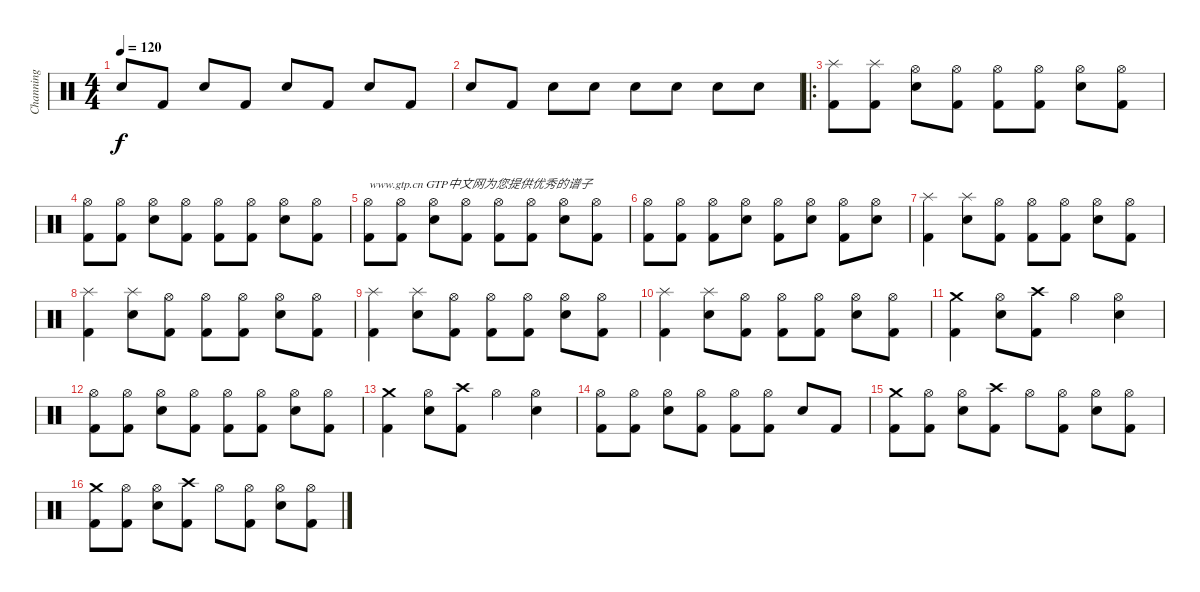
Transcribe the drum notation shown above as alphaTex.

\track ("Channing" "Channing") {instrument percussion}
\staff {score}
\articulation defaults
\ts (4 4)
\tempo 120
\clef neutral
\ks c "Snare (hit) 2".8{dy f} "Kick (hit) 2".8 "Snare (hit) 2".8 "Kick (hit) 2".8 "Snare (hit) 2".8 "Kick (hit) 2".8 "Snare (hit) 2".8 "Kick (hit) 2".8
|
"Snare (hit) 2".8 "Kick (hit) 2".8 "Snare (hit) 2".8 "Snare (hit) 2".8 "Snare (hit) 2".8 "Snare (hit) 2".8 "Snare (hit) 2".8 "Snare (hit) 2".8 |
\ro
("Splash (hit)" "Kick (hit) 2").8 ("Splash (hit)" "Kick (hit) 2").8 ("Hi-Hat (open)" "Snare (hit) 2").8 ("Hi-Hat (open)" "Kick (hit) 2").8 ("Hi-Hat (open)" "Kick (hit) 2").8 ("Hi-Hat (open)" "Kick (hit) 2").8 ("Hi-Hat (open)" "Snare (hit) 2").8 ("Hi-Hat (open)" "Kick (hit) 2").8 |
("Hi-Hat (open)" "Kick (hit) 2").8 ("Hi-Hat (open)" "Kick (hit) 2").8 ("Hi-Hat (open)" "Snare (hit) 2").8 ("Hi-Hat (open)" "Kick (hit) 2").8 ("Hi-Hat (open)" "Kick (hit) 2").8 ("Hi-Hat (open)" "Kick (hit) 2").8 ("Hi-Hat (open)" "Snare (hit) 2").8 ("Hi-Hat (open)" "Kick (hit) 2").8 |
("Hi-Hat (open)" "Kick (hit) 2").8{txt "www.gtp.cn GTP中文网为您提供优秀的谱子"} ("Hi-Hat (open)" "Kick (hit) 2").8 ("Hi-Hat (open)" "Snare (hit) 2").8 ("Hi-Hat (open)" "Kick (hit) 2").8 ("Hi-Hat (open)" "Kick (hit) 2").8 ("Hi-Hat (open)" "Kick (hit) 2").8 ("Hi-Hat (open)" "Snare (hit) 2").8 ("Hi-Hat (open)" "Kick (hit) 2").8 |
("Hi-Hat (open)" "Kick (hit) 2").8 ("Hi-Hat (open)" "Kick (hit) 2").8 ("Hi-Hat (open)" "Kick (hit) 2").8 ("Hi-Hat (open)" "Snare (hit) 2").8 ("Hi-Hat (open)" "Kick (hit) 2").8 ("Hi-Hat (open)" "Snare (hit) 2").8 ("Hi-Hat (open)" "Kick (hit) 2").8 ("Hi-Hat (open)" "Snare (hit) 2").8 |
("Splash (hit)" "Kick (hit) 2").4 ("Splash (hit)" "Snare (hit) 2").8 ("Hi-Hat (open)" "Kick (hit) 2").8 ("Hi-Hat (open)" "Kick (hit) 2").8 ("Hi-Hat (open)" "Kick (hit) 2").8 ("Hi-Hat (open)" "Snare (hit) 2").8 ("Hi-Hat (open)" "Kick (hit) 2").8 |
("Splash (hit)" "Kick (hit) 2").4 ("Splash (hit)" "Snare (hit) 2").8 ("Hi-Hat (open)" "Kick (hit) 2").8 ("Hi-Hat (open)" "Kick (hit) 2").8 ("Hi-Hat (open)" "Kick (hit) 2").8 ("Hi-Hat (open)" "Snare (hit) 2").8 ("Hi-Hat (open)" "Kick (hit) 2").8 |
("Splash (hit)" "Kick (hit) 2").4 ("Splash (hit)" "Snare (hit) 2").8 ("Hi-Hat (open)" "Kick (hit) 2").8 ("Hi-Hat (open)" "Kick (hit) 2").8 ("Hi-Hat (open)" "Kick (hit) 2").8 ("Hi-Hat (open)" "Snare (hit) 2").8 ("Hi-Hat (open)" "Kick (hit) 2").8 |
("Splash (hit)" "Kick (hit) 2").4 ("Splash (hit)" "Snare (hit) 2").8 ("Hi-Hat (open)" "Kick (hit) 2").8 ("Hi-Hat (open)" "Kick (hit) 2").8 ("Hi-Hat (open)" "Kick (hit) 2").8 ("Hi-Hat (open)" "Snare (hit) 2").8 ("Hi-Hat (open)" "Kick (hit) 2").8 |
("Crash medium (hit)" "Kick (hit) 2").4 ("Hi-Hat (open)" "Snare (hit) 2").8 ("Crash high (hit)" "Kick (hit) 2").8 "Hi-Hat (open)".4 ("Hi-Hat (open)" "Snare (hit) 2").4 |
("Hi-Hat (open)" "Kick (hit) 2").8 ("Hi-Hat (open)" "Kick (hit) 2").8 ("Hi-Hat (open)" "Snare (hit) 2").8 ("Hi-Hat (open)" "Kick (hit) 2").8 ("Hi-Hat (open)" "Kick (hit) 2").8 ("Hi-Hat (open)" "Kick (hit) 2").8 ("Hi-Hat (open)" "Snare (hit) 2").8 ("Hi-Hat (open)" "Kick (hit) 2").8 |
("Crash medium (hit)" "Kick (hit) 2").4 ("Hi-Hat (open)" "Snare (hit) 2").8 ("Crash high (hit)" "Kick (hit) 2").8 "Hi-Hat (open)".4 ("Hi-Hat (open)" "Snare (hit) 2").4 |
("Hi-Hat (open)" "Kick (hit) 2").8 ("Hi-Hat (open)" "Kick (hit) 2").8 ("Hi-Hat (open)" "Snare (hit) 2").8 ("Hi-Hat (open)" "Kick (hit) 2").8 ("Hi-Hat (open)" "Kick (hit) 2").8 ("Hi-Hat (open)" "Kick (hit) 2").8 "Snare (hit) 2".8 "Kick (hit) 2".8 |
("Crash medium (hit)" "Kick (hit) 2").8 ("Hi-Hat (open)" "Kick (hit) 2").8 ("Hi-Hat (open)" "Snare (hit) 2").8 ("Crash high (hit)" "Kick (hit) 2").8 "Hi-Hat (open)".8 ("Hi-Hat (open)" "Kick (hit) 2").8 ("Hi-Hat (open)" "Snare (hit) 2").8 ("Hi-Hat (open)" "Kick (hit) 2").8 |
("Crash medium (hit)" "Kick (hit) 2").8 ("Hi-Hat (open)" "Kick (hit) 2").8 ("Hi-Hat (open)" "Snare (hit) 2").8 ("Crash high (hit)" "Kick (hit) 2").8 "Hi-Hat (open)".8 ("Hi-Hat (open)" "Kick (hit) 2").8 ("Hi-Hat (open)" "Snare (hit) 2").8 ("Hi-Hat (open)" "Kick (hit) 2").8
